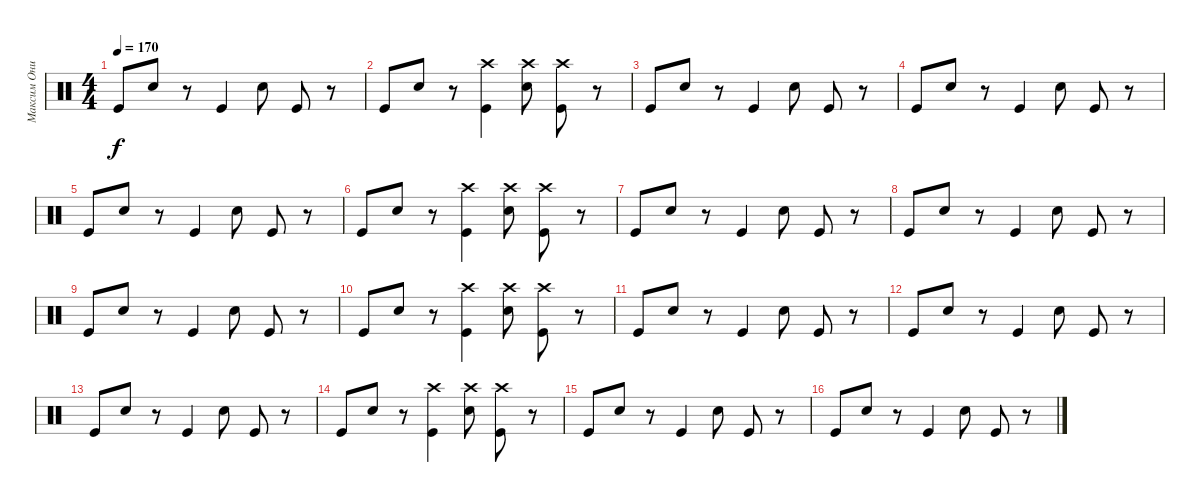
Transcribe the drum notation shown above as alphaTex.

\track ("Максим Онищенко" "Максим Они") {instrument percussion}
\staff {score}
\articulation defaults
\ts (4 4)
\tempo 170
\clef neutral
\ks c "Kick (hit)".8{dy f} "Snare (hit) 2".8
r.8 "Kick (hit)".4 "Snare (hit) 2".8 "Kick (hit)".8 r.8 |
"Kick (hit)".8 "Snare (hit) 2".8 r.8 ("Kick (hit)" "Crash high (hit)").4 ("Snare (hit) 2" "Crash high (hit)").8 ("Kick (hit)" "Crash high (hit)").8 r.8 |
"Kick (hit)".8 "Snare (hit) 2".8 r.8 "Kick (hit)".4 "Snare (hit) 2".8 "Kick (hit)".8 r.8 |
"Kick (hit)".8 "Snare (hit) 2".8 r.8 "Kick (hit)".4 "Snare (hit) 2".8 "Kick (hit)".8 r.8 |
"Kick (hit)".8 "Snare (hit) 2".8 r.8 "Kick (hit)".4 "Snare (hit) 2".8 "Kick (hit)".8 r.8 |
"Kick (hit)".8 "Snare (hit) 2".8 r.8 ("Kick (hit)" "Crash high (hit)").4 ("Snare (hit) 2" "Crash high (hit)").8 ("Kick (hit)" "Crash high (hit)").8 r.8 |
"Kick (hit)".8 "Snare (hit) 2".8 r.8 "Kick (hit)".4 "Snare (hit) 2".8 "Kick (hit)".8 r.8 |
"Kick (hit)".8 "Snare (hit) 2".8 r.8 "Kick (hit)".4 "Snare (hit) 2".8 "Kick (hit)".8 r.8 |
"Kick (hit)".8 "Snare (hit) 2".8 r.8 "Kick (hit)".4 "Snare (hit) 2".8 "Kick (hit)".8 r.8 |
"Kick (hit)".8 "Snare (hit) 2".8 r.8 ("Kick (hit)" "Crash high (hit)").4 ("Snare (hit) 2" "Crash high (hit)").8 ("Kick (hit)" "Crash high (hit)").8 r.8 |
"Kick (hit)".8 "Snare (hit) 2".8 r.8 "Kick (hit)".4 "Snare (hit) 2".8 "Kick (hit)".8 r.8 |
"Kick (hit)".8 "Snare (hit) 2".8 r.8 "Kick (hit)".4 "Snare (hit) 2".8 "Kick (hit)".8 r.8 |
"Kick (hit)".8 "Snare (hit) 2".8 r.8 "Kick (hit)".4 "Snare (hit) 2".8 "Kick (hit)".8 r.8 |
"Kick (hit)".8 "Snare (hit) 2".8 r.8 ("Kick (hit)" "Crash high (hit)").4 ("Snare (hit) 2" "Crash high (hit)").8 ("Kick (hit)" "Crash high (hit)").8 r.8 |
"Kick (hit)".8 "Snare (hit) 2".8 r.8 "Kick (hit)".4 "Snare (hit) 2".8 "Kick (hit)".8 r.8 |
"Kick (hit)".8 "Snare (hit) 2".8 r.8 "Kick (hit)".4 "Snare (hit) 2".8 "Kick (hit)".8 r.8
